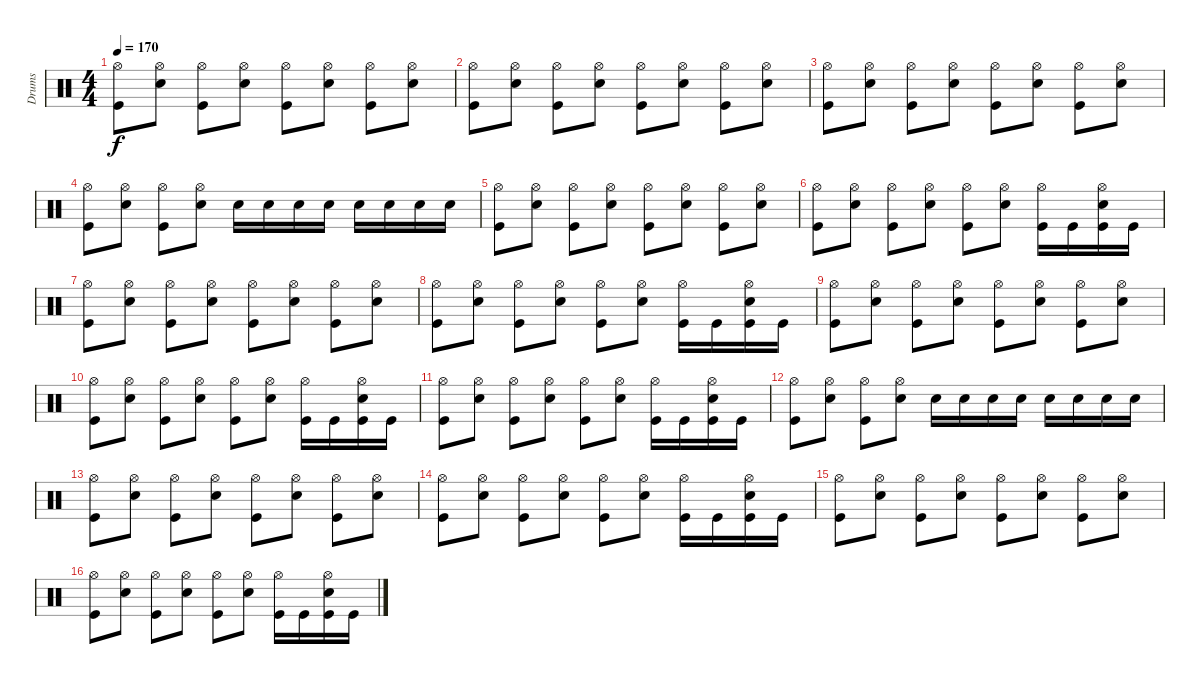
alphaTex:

\track ("Drums" "Drums") {instrument percussion}
\staff {score}
\articulation defaults
\ts (4 4)
\tempo 170
\clef neutral
\ks c
("Hi-Hat (open)" "Kick (hit)").8{dy f} ("Hi-Hat (open)" "Snare (hit) 2").8 ("Hi-Hat (open)" "Kick (hit)").8 ("Hi-Hat (open)" "Snare (hit) 2").8 ("Hi-Hat (open)" "Kick (hit)").8 ("Hi-Hat (open)" "Snare (hit) 2").8 ("Hi-Hat (open)" "Kick (hit)").8 ("Hi-Hat (open)" "Snare (hit) 2").8 |
("Hi-Hat (open)" "Kick (hit)").8 ("Hi-Hat (open)" "Snare (hit) 2").8 ("Hi-Hat (open)" "Kick (hit)").8 ("Hi-Hat (open)" "Snare (hit) 2").8 ("Hi-Hat (open)" "Kick (hit)").8 ("Hi-Hat (open)" "Snare (hit) 2").8 ("Hi-Hat (open)" "Kick (hit)").8 ("Hi-Hat (open)" "Snare (hit) 2").8 |
("Hi-Hat (open)" "Kick (hit)").8 ("Hi-Hat (open)" "Snare (hit) 2").8 ("Hi-Hat (open)" "Kick (hit)").8 ("Hi-Hat (open)" "Snare (hit) 2").8 ("Hi-Hat (open)" "Kick (hit)").8 ("Hi-Hat (open)" "Snare (hit) 2").8 ("Hi-Hat (open)" "Kick (hit)").8 ("Hi-Hat (open)" "Snare (hit) 2").8 |
("Hi-Hat (open)" "Kick (hit)").8 ("Hi-Hat (open)" "Snare (hit) 2").8 ("Hi-Hat (open)" "Kick (hit)").8 ("Hi-Hat (open)" "Snare (hit) 2").8 "Snare (hit) 2".16 "Snare (hit) 2".16 "Snare (hit) 2".16 "Snare (hit) 2".16 "Snare (hit) 2".16 "Snare (hit) 2".16 "Snare (hit) 2".16 "Snare (hit) 2".16 |
("Hi-Hat (open)" "Kick (hit)").8 ("Hi-Hat (open)" "Snare (hit) 2").8 ("Hi-Hat (open)" "Kick (hit)").8 ("Hi-Hat (open)" "Snare (hit) 2").8 ("Hi-Hat (open)" "Kick (hit)").8 ("Hi-Hat (open)" "Snare (hit) 2").8 ("Hi-Hat (open)" "Kick (hit)").8 ("Hi-Hat (open)" "Snare (hit) 2").8 |
("Hi-Hat (open)" "Kick (hit)").8 ("Hi-Hat (open)" "Snare (hit) 2").8 ("Hi-Hat (open)" "Kick (hit)").8 ("Hi-Hat (open)" "Snare (hit) 2").8 ("Hi-Hat (open)" "Kick (hit)").8 ("Hi-Hat (open)" "Snare (hit) 2").8 ("Hi-Hat (open)" "Kick (hit)").16 "Kick (hit)".16 ("Hi-Hat (open)" "Snare (hit) 2" "Kick (hit)").16 "Kick (hit)".16 |
("Hi-Hat (open)" "Kick (hit)").8 ("Hi-Hat (open)" "Snare (hit) 2").8 ("Hi-Hat (open)" "Kick (hit)").8 ("Hi-Hat (open)" "Snare (hit) 2").8 ("Hi-Hat (open)" "Kick (hit)").8 ("Hi-Hat (open)" "Snare (hit) 2").8 ("Hi-Hat (open)" "Kick (hit)").8 ("Hi-Hat (open)" "Snare (hit) 2").8 |
("Hi-Hat (open)" "Kick (hit)").8 ("Hi-Hat (open)" "Snare (hit) 2").8 ("Hi-Hat (open)" "Kick (hit)").8 ("Hi-Hat (open)" "Snare (hit) 2").8 ("Hi-Hat (open)" "Kick (hit)").8 ("Hi-Hat (open)" "Snare (hit) 2").8 ("Hi-Hat (open)" "Kick (hit)").16 "Kick (hit)".16 ("Hi-Hat (open)" "Snare (hit) 2" "Kick (hit)").16 "Kick (hit)".16 |
("Hi-Hat (open)" "Kick (hit)").8 ("Hi-Hat (open)" "Snare (hit) 2").8 ("Hi-Hat (open)" "Kick (hit)").8 ("Hi-Hat (open)" "Snare (hit) 2").8 ("Hi-Hat (open)" "Kick (hit)").8 ("Hi-Hat (open)" "Snare (hit) 2").8 ("Hi-Hat (open)" "Kick (hit)").8 ("Hi-Hat (open)" "Snare (hit) 2").8 |
("Hi-Hat (open)" "Kick (hit)").8 ("Hi-Hat (open)" "Snare (hit) 2").8 ("Hi-Hat (open)" "Kick (hit)").8 ("Hi-Hat (open)" "Snare (hit) 2").8 ("Hi-Hat (open)" "Kick (hit)").8 ("Hi-Hat (open)" "Snare (hit) 2").8 ("Hi-Hat (open)" "Kick (hit)").16 "Kick (hit)".16 ("Hi-Hat (open)" "Snare (hit) 2" "Kick (hit)").16 "Kick (hit)".16 |
("Hi-Hat (open)" "Kick (hit)").8 ("Hi-Hat (open)" "Snare (hit) 2").8 ("Hi-Hat (open)" "Kick (hit)").8 ("Hi-Hat (open)" "Snare (hit) 2").8 ("Hi-Hat (open)" "Kick (hit)").8 ("Hi-Hat (open)" "Snare (hit) 2").8 ("Hi-Hat (open)" "Kick (hit)").16 "Kick (hit)".16 ("Hi-Hat (open)" "Snare (hit) 2" "Kick (hit)").16 "Kick (hit)".16 |
("Hi-Hat (open)" "Kick (hit)").8 ("Hi-Hat (open)" "Snare (hit) 2").8 ("Hi-Hat (open)" "Kick (hit)").8 ("Hi-Hat (open)" "Snare (hit) 2").8 "Snare (hit) 2".16 "Snare (hit) 2".16 "Snare (hit) 2".16 "Snare (hit) 2".16 "Snare (hit) 2".16 "Snare (hit) 2".16 "Snare (hit) 2".16 "Snare (hit) 2".16 |
("Hi-Hat (open)" "Kick (hit)").8 ("Hi-Hat (open)" "Snare (hit) 2").8 ("Hi-Hat (open)" "Kick (hit)").8 ("Hi-Hat (open)" "Snare (hit) 2").8 ("Hi-Hat (open)" "Kick (hit)").8 ("Hi-Hat (open)" "Snare (hit) 2").8 ("Hi-Hat (open)" "Kick (hit)").8 ("Hi-Hat (open)" "Snare (hit) 2").8 |
("Hi-Hat (open)" "Kick (hit)").8 ("Hi-Hat (open)" "Snare (hit) 2").8 ("Hi-Hat (open)" "Kick (hit)").8 ("Hi-Hat (open)" "Snare (hit) 2").8 ("Hi-Hat (open)" "Kick (hit)").8 ("Hi-Hat (open)" "Snare (hit) 2").8 ("Hi-Hat (open)" "Kick (hit)").16 "Kick (hit)".16 ("Hi-Hat (open)" "Snare (hit) 2" "Kick (hit)").16 "Kick (hit)".16 |
("Hi-Hat (open)" "Kick (hit)").8 ("Hi-Hat (open)" "Snare (hit) 2").8 ("Hi-Hat (open)" "Kick (hit)").8 ("Hi-Hat (open)" "Snare (hit) 2").8 ("Hi-Hat (open)" "Kick (hit)").8 ("Hi-Hat (open)" "Snare (hit) 2").8 ("Hi-Hat (open)" "Kick (hit)").8 ("Hi-Hat (open)" "Snare (hit) 2").8 |
("Hi-Hat (open)" "Kick (hit)").8 ("Hi-Hat (open)" "Snare (hit) 2").8 ("Hi-Hat (open)" "Kick (hit)").8 ("Hi-Hat (open)" "Snare (hit) 2").8 ("Hi-Hat (open)" "Kick (hit)").8 ("Hi-Hat (open)" "Snare (hit) 2").8 ("Hi-Hat (open)" "Kick (hit)").16 "Kick (hit)".16 ("Hi-Hat (open)" "Snare (hit) 2" "Kick (hit)").16 "Kick (hit)".16
